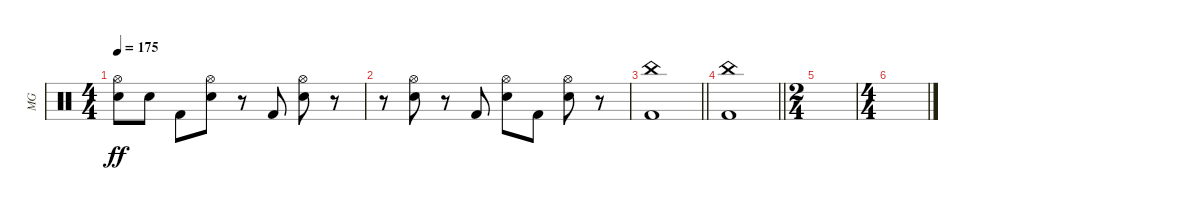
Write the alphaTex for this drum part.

\track ("MG" "MG") {instrument percussion}
\staff {score}
\articulation defaults
\ts (4 4)
\tempo 175
\clef neutral
\ks c
("Hi-Hat (open)" "Electric Snare (hit)").8{dy ff} "Electric Snare (hit)".8 "Kick (hit) 2".8 ("Hi-Hat (open)" "Electric Snare (hit)").8 r.8 "Kick (hit) 2".8 ("Hi-Hat (open)" "Electric Snare (hit)").8 r.8 |
r.8 ("Hi-Hat (open)" "Electric Snare (hit)").8 r.8 "Kick (hit) 2".8 ("Hi-Hat (open)" "Electric Snare (hit)").8 "Kick (hit) 2".8 ("Hi-Hat (open)" "Electric Snare (hit)").8 r.8 |
\barLineRight lightlight
("China (hit)" "Kick (hit) 2").1 |
\section ("" "")
\barLineRight lightlight
("China (hit)" "Kick (hit) 2").1 |
\ts (2 4)
|
\ts (4 4)
